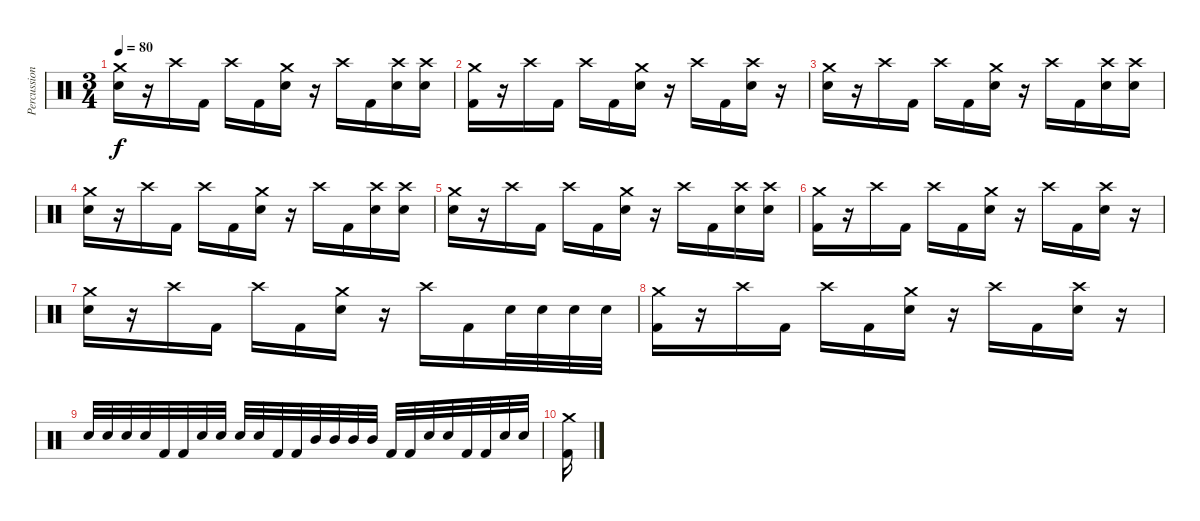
\track ("Percussion" "Percussion") {instrument percussion}
\staff {score}
\articulation defaults
\ts (3 4)
\tempo 80
\clef neutral
\ks c
("Crash medium (hit)" "Electric Snare (hit)").16{dy f} r.16 "Crash high (hit)".16 "Kick (hit) 2".16 "Crash high (hit)".16 "Kick (hit) 2".16 ("Crash medium (hit)" "Electric Snare (hit)").16 r.16 "Crash high (hit)".16 "Kick (hit) 2".16 ("Crash high (hit)" "Electric Snare (hit)").16 ("Crash high (hit)" "Electric Snare (hit)").16 |
("Crash medium (hit)" "Kick (hit) 2").16 r.16 "Crash high (hit)".16 "Kick (hit) 2".16 "Crash high (hit)".16 "Kick (hit) 2".16 ("Crash medium (hit)" "Electric Snare (hit)").16 r.16 "Crash high (hit)".16 "Kick (hit) 2".16 ("Crash high (hit)" "Electric Snare (hit)").16 r.16 |
("Crash medium (hit)" "Electric Snare (hit)").16 r.16 "Crash high (hit)".16 "Kick (hit) 2".16 "Crash high (hit)".16 "Kick (hit) 2".16 ("Crash medium (hit)" "Electric Snare (hit)").16 r.16 "Crash high (hit)".16 "Kick (hit) 2".16 ("Crash high (hit)" "Electric Snare (hit)").16 ("Crash high (hit)" "Electric Snare (hit)").16 |
("Crash medium (hit)" "Electric Snare (hit)").16 r.16 "Crash high (hit)".16 "Kick (hit) 2".16 "Crash high (hit)".16 "Kick (hit) 2".16 ("Crash medium (hit)" "Electric Snare (hit)").16 r.16 "Crash high (hit)".16 "Kick (hit) 2".16 ("Crash high (hit)" "Electric Snare (hit)").16 ("Crash high (hit)" "Electric Snare (hit)").16 |
("Crash medium (hit)" "Electric Snare (hit)").16 r.16 "Crash high (hit)".16 "Kick (hit) 2".16 "Crash high (hit)".16 "Kick (hit) 2".16 ("Crash medium (hit)" "Electric Snare (hit)").16 r.16 "Crash high (hit)".16 "Kick (hit) 2".16 ("Crash high (hit)" "Electric Snare (hit)").16 ("Crash high (hit)" "Electric Snare (hit)").16 |
("Crash medium (hit)" "Kick (hit) 2").16 r.16 "Crash high (hit)".16 "Kick (hit) 2".16 "Crash high (hit)".16 "Kick (hit) 2".16 ("Crash medium (hit)" "Electric Snare (hit)").16 r.16 "Crash high (hit)".16 "Kick (hit) 2".16 ("Crash high (hit)" "Electric Snare (hit)").16 r.16 |
("Crash medium (hit)" "Electric Snare (hit)").16 r.16 "Crash high (hit)".16 "Kick (hit) 2".16 "Crash high (hit)".16 "Kick (hit) 2".16 ("Crash medium (hit)" "Electric Snare (hit)").16 r.16 "Crash high (hit)".16 "Kick (hit) 2".16 "Electric Snare (hit)".32 "Electric Snare (hit)".32 "Electric Snare (hit)".32 "Electric Snare (hit)".32 |
("Crash medium (hit)" "Kick (hit) 2").16 r.16 "Crash high (hit)".16 "Kick (hit) 2".16 "Crash high (hit)".16 "Kick (hit) 2".16 ("Crash medium (hit)" "Electric Snare (hit)").16 r.16 "Crash high (hit)".16 "Kick (hit) 2".16 ("Crash high (hit)" "Electric Snare (hit)").16 r.16 |
"Electric Snare (hit)".32 "Electric Snare (hit)".32 "Electric Snare (hit)".32 "Electric Snare (hit)".32 "Kick (hit) 2".32 "Kick (hit) 2".32 "Electric Snare (hit)".32 "Electric Snare (hit)".32 "Electric Snare (hit)".32 "Electric Snare (hit)".32 "Kick (hit) 2".32 "Kick (hit) 2".32 "Mid Tom (hit)".32 "Mid Tom (hit)".32 "Mid Tom (hit)".32 "Mid Tom (hit)".32 "Kick (hit) 2".32 "Kick (hit) 2".32 "Electric Snare (hit)".32 "Electric Snare (hit)".32 "Kick (hit) 2".32 "Kick (hit) 2".32 "Electric Snare (hit)".32 "Electric Snare (hit)".32 |
("Crash medium (hit)" "Kick (hit) 2").16
